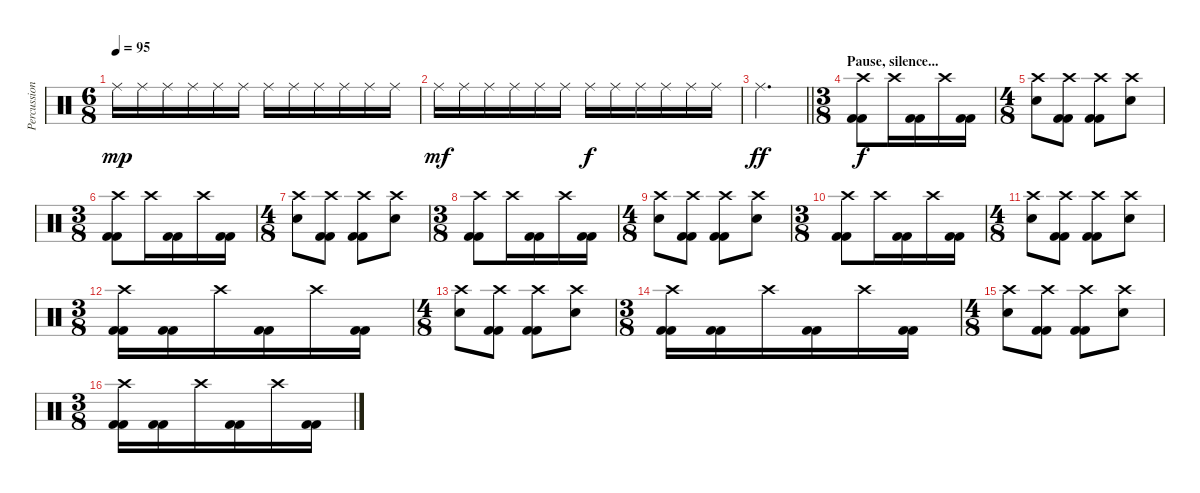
\track ("Percussion" "Percussion") {instrument percussion}
\staff {score}
\articulation defaults
\ts (6 8)
\tempo 95
\clef neutral
\ks c "Ride (middle)".16{dy mp} "Ride (middle)".16 "Ride (middle)".16 "Ride (middle)".16 "Ride (middle)".16 "Ride (middle)".16 "Ride (middle)".16 "Ride (middle)".16 "Ride (middle)".16 "Ride (middle)".16 "Ride (middle)".16 "Ride (middle)".16
|
"Ride (middle)".16{dy mf} "Ride (middle)".16 "Ride (middle)".16 "Ride (middle)".16 "Ride (middle)".16 "Ride (middle)".16 "Ride (middle)".16{dy f} "Ride (middle)".16 "Ride (middle)".16 "Ride (middle)".16 "Ride (middle)".16 "Ride (middle)".16 |
\barLineRight lightlight "Ride (middle)".2{d dy ff}
|
\ts (3 8)
\section ("" "Pause, silence...")
("Crash high (hit)" "Kick (hit) 2" "Kick (hit) 2").8{dy f} "Crash high (hit)".16 ("Kick (hit) 2" "Kick (hit) 2").16 "Crash high (hit)".16 ("Kick (hit) 2" "Kick (hit) 2").16 |
\ts (4 8)
("Crash high (hit)" "Electric Snare (hit)").8 ("Crash high (hit)" "Kick (hit) 2" "Kick (hit) 2").8 ("Crash high (hit)" "Kick (hit) 2" "Kick (hit) 2").8 ("Crash high (hit)" "Electric Snare (hit)").8 |
\ts (3 8)
("Crash high (hit)" "Kick (hit) 2" "Kick (hit) 2").8 "Crash high (hit)".16 ("Kick (hit) 2" "Kick (hit) 2").16 "Crash high (hit)".16 ("Kick (hit) 2" "Kick (hit) 2").16 |
\ts (4 8)
("Crash high (hit)" "Electric Snare (hit)").8 ("Crash high (hit)" "Kick (hit) 2" "Kick (hit) 2").8 ("Crash high (hit)" "Kick (hit) 2" "Kick (hit) 2").8 ("Crash high (hit)" "Electric Snare (hit)").8 |
\ts (3 8)
("Crash high (hit)" "Kick (hit) 2" "Kick (hit) 2").8 "Crash high (hit)".16 ("Kick (hit) 2" "Kick (hit) 2").16 "Crash high (hit)".16 ("Kick (hit) 2" "Kick (hit) 2").16 |
\ts (4 8)
("Crash high (hit)" "Electric Snare (hit)").8 ("Crash high (hit)" "Kick (hit) 2" "Kick (hit) 2").8 ("Crash high (hit)" "Kick (hit) 2" "Kick (hit) 2").8 ("Crash high (hit)" "Electric Snare (hit)").8 |
\ts (3 8)
("Crash high (hit)" "Kick (hit) 2" "Kick (hit) 2").8 "Crash high (hit)".16 ("Kick (hit) 2" "Kick (hit) 2").16 "Crash high (hit)".16 ("Kick (hit) 2" "Kick (hit) 2").16 |
\ts (4 8)
("Crash high (hit)" "Electric Snare (hit)").8 ("Crash high (hit)" "Kick (hit) 2" "Kick (hit) 2").8 ("Crash high (hit)" "Kick (hit) 2" "Kick (hit) 2").8 ("Crash high (hit)" "Electric Snare (hit)").8 |
\ts (3 8)
("Crash high (hit)" "Kick (hit) 2" "Kick (hit) 2").16 ("Kick (hit) 2" "Kick (hit) 2").16 "Crash high (hit)".16 ("Kick (hit) 2" "Kick (hit) 2").16 "Crash high (hit)".16 ("Kick (hit) 2" "Kick (hit) 2").16 |
\ts (4 8)
("Crash high (hit)" "Electric Snare (hit)").8 ("Crash high (hit)" "Kick (hit) 2" "Kick (hit) 2").8 ("Crash high (hit)" "Kick (hit) 2" "Kick (hit) 2").8 ("Crash high (hit)" "Electric Snare (hit)").8 |
\ts (3 8)
("Crash high (hit)" "Kick (hit) 2" "Kick (hit) 2").16 ("Kick (hit) 2" "Kick (hit) 2").16 "Crash high (hit)".16 ("Kick (hit) 2" "Kick (hit) 2").16 "Crash high (hit)".16 ("Kick (hit) 2" "Kick (hit) 2").16 |
\ts (4 8)
("Crash high (hit)" "Electric Snare (hit)").8 ("Crash high (hit)" "Kick (hit) 2" "Kick (hit) 2").8 ("Crash high (hit)" "Kick (hit) 2" "Kick (hit) 2").8 ("Crash high (hit)" "Electric Snare (hit)").8 |
\ts (3 8)
("Crash high (hit)" "Kick (hit) 2" "Kick (hit) 2").16 ("Kick (hit) 2" "Kick (hit) 2").16 "Crash high (hit)".16 ("Kick (hit) 2" "Kick (hit) 2").16 "Crash high (hit)".16 ("Kick (hit) 2" "Kick (hit) 2").16
